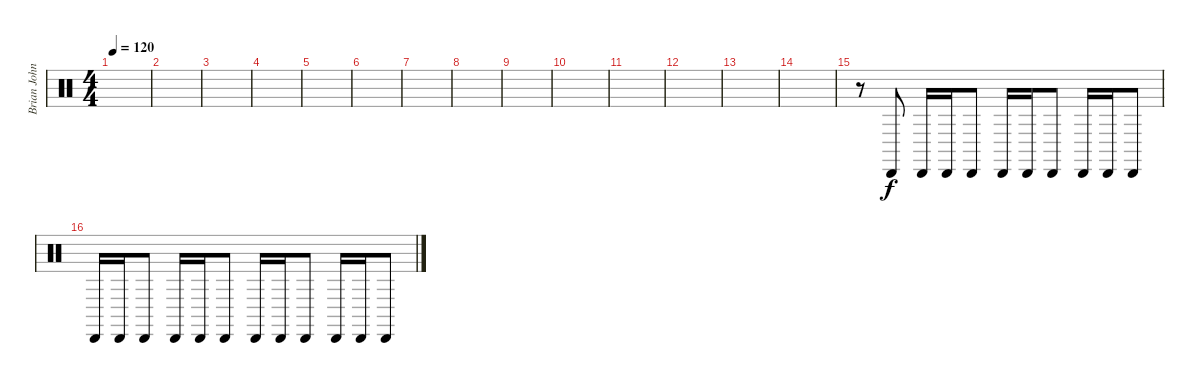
\track ("Brian Johnson - Shaker" "Brian John") {instrument percussion}
\staff {score}
\articulation defaults
\ts (4 4)
\tempo 120
\clef neutral
\ks c
|
|
|
|
|
|
|
|
|
|
|
|
|
|
r.8 "Cabasa (hit)".8 "Cabasa (hit)".16 "Cabasa (hit)".16 "Cabasa (hit)".8 "Cabasa (hit)".16 "Cabasa (hit)".16 "Cabasa (hit)".8 "Cabasa (hit)".16 "Cabasa (hit)".16 "Cabasa (hit)".8 |
"Cabasa (hit)".16 "Cabasa (hit)".16 "Cabasa (hit)".8 "Cabasa (hit)".16 "Cabasa (hit)".16 "Cabasa (hit)".8 "Cabasa (hit)".16 "Cabasa (hit)".16 "Cabasa (hit)".8 "Cabasa (hit)".16 "Cabasa (hit)".16 "Cabasa (hit)".8
